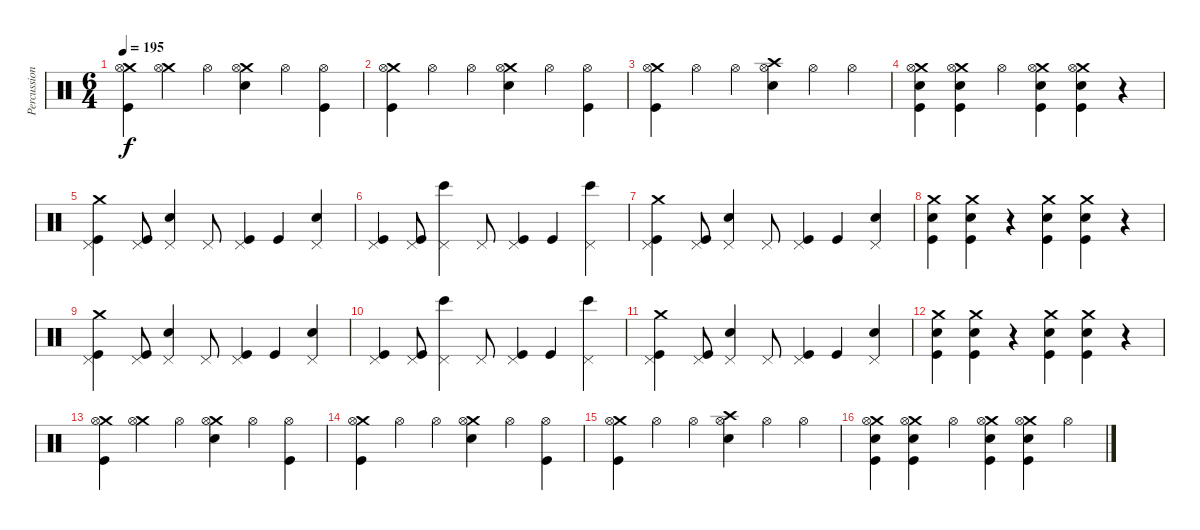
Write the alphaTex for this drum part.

\track ("Percussion" "Percussion") {instrument percussion}
\staff {score}
\articulation defaults
\ts (6 4)
\tempo 195
\clef neutral
\ks c
("Crash medium (hit)" "Hi-Hat (open)" "Kick (hit)").4{dy f} ("Crash medium (hit)" "Hi-Hat (open)").4 "Hi-Hat (open)".4 ("Crash medium (hit)" "Hi-Hat (open)" "Electric Snare (hit)").4 "Hi-Hat (open)".4 ("Hi-Hat (open)" "Kick (hit)").4 |
("Crash medium (hit)" "Hi-Hat (open)" "Kick (hit)").4 "Hi-Hat (open)".4 "Hi-Hat (open)".4 ("Crash medium (hit)" "Hi-Hat (open)" "Electric Snare (hit)").4 "Hi-Hat (open)".4 ("Hi-Hat (open)" "Kick (hit)").4 |
("Crash medium (hit)" "Hi-Hat (open)" "Kick (hit)").4 "Hi-Hat (open)".4 "Hi-Hat (open)".4 ("Crash high (hit)" "Hi-Hat (open)" "Electric Snare (hit)").4 "Hi-Hat (open)".4 "Hi-Hat (open)".4 |
("Crash medium (hit)" "Hi-Hat (open)" "Electric Snare (hit)" "Kick (hit)").4 ("Crash medium (hit)" "Hi-Hat (open)" "Electric Snare (hit)" "Kick (hit)").4 "Hi-Hat (open)".4 ("Crash medium (hit)" "Hi-Hat (open)" "Electric Snare (hit)" "Kick (hit)").4 ("Crash medium (hit)" "Hi-Hat (open)" "Electric Snare (hit)" "Kick (hit)").4 r.4 |
("Pedal Hi-Hat (hit)" "Crash medium (hit)" "Kick (hit)").4 ("Pedal Hi-Hat (hit)" "Kick (hit)").8 ("Pedal Hi-Hat (hit)" "Electric Snare (hit)").4 "Pedal Hi-Hat (hit)".8 ("Pedal Hi-Hat (hit)" "Kick (hit)").4 "Kick (hit)".4 ("Pedal Hi-Hat (hit)" "Electric Snare (hit)").4 |
("Pedal Hi-Hat (hit)" "Kick (hit)").4 ("Pedal Hi-Hat (hit)" "Kick (hit)").8 ("Pedal Hi-Hat (hit)" "Bongo High (hit)").4 "Pedal Hi-Hat (hit)".8 ("Pedal Hi-Hat (hit)" "Kick (hit)").4 "Kick (hit)".4 ("Pedal Hi-Hat (hit)" "Bongo High (hit)").4 |
("Pedal Hi-Hat (hit)" "Crash medium (hit)" "Kick (hit)").4 ("Pedal Hi-Hat (hit)" "Kick (hit)").8 ("Pedal Hi-Hat (hit)" "Electric Snare (hit)").4 "Pedal Hi-Hat (hit)".8 ("Pedal Hi-Hat (hit)" "Kick (hit)").4 "Kick (hit)".4 ("Pedal Hi-Hat (hit)" "Electric Snare (hit)").4 |
("Crash medium (hit)" "Electric Snare (hit)" "Kick (hit)").4 ("Crash medium (hit)" "Electric Snare (hit)" "Kick (hit)").4 r.4 ("Crash medium (hit)" "Electric Snare (hit)" "Kick (hit)").4 ("Crash medium (hit)" "Electric Snare (hit)" "Kick (hit)").4 r.4 |
("Pedal Hi-Hat (hit)" "Crash medium (hit)" "Kick (hit)").4 ("Pedal Hi-Hat (hit)" "Kick (hit)").8 ("Pedal Hi-Hat (hit)" "Electric Snare (hit)").4 "Pedal Hi-Hat (hit)".8 ("Pedal Hi-Hat (hit)" "Kick (hit)").4 "Kick (hit)".4 ("Pedal Hi-Hat (hit)" "Electric Snare (hit)").4 |
("Pedal Hi-Hat (hit)" "Kick (hit)").4 ("Pedal Hi-Hat (hit)" "Kick (hit)").8 ("Pedal Hi-Hat (hit)" "Bongo High (hit)").4 "Pedal Hi-Hat (hit)".8 ("Pedal Hi-Hat (hit)" "Kick (hit)").4 "Kick (hit)".4 ("Pedal Hi-Hat (hit)" "Bongo High (hit)").4 |
("Pedal Hi-Hat (hit)" "Crash medium (hit)" "Kick (hit)").4 ("Pedal Hi-Hat (hit)" "Kick (hit)").8 ("Pedal Hi-Hat (hit)" "Electric Snare (hit)").4 "Pedal Hi-Hat (hit)".8 ("Pedal Hi-Hat (hit)" "Kick (hit)").4 "Kick (hit)".4 ("Pedal Hi-Hat (hit)" "Electric Snare (hit)").4 |
("Crash medium (hit)" "Electric Snare (hit)" "Kick (hit)").4 ("Crash medium (hit)" "Electric Snare (hit)" "Kick (hit)").4 r.4 ("Crash medium (hit)" "Electric Snare (hit)" "Kick (hit)").4 ("Crash medium (hit)" "Electric Snare (hit)" "Kick (hit)").4 r.4 |
("Crash medium (hit)" "Hi-Hat (open)" "Kick (hit)").4 ("Crash medium (hit)" "Hi-Hat (open)").4 "Hi-Hat (open)".4 ("Crash medium (hit)" "Hi-Hat (open)" "Electric Snare (hit)").4 "Hi-Hat (open)".4 ("Hi-Hat (open)" "Kick (hit)").4 |
("Crash medium (hit)" "Hi-Hat (open)" "Kick (hit)").4 "Hi-Hat (open)".4 "Hi-Hat (open)".4 ("Crash medium (hit)" "Hi-Hat (open)" "Electric Snare (hit)").4 "Hi-Hat (open)".4 ("Hi-Hat (open)" "Kick (hit)").4 |
("Crash medium (hit)" "Hi-Hat (open)" "Kick (hit)").4 "Hi-Hat (open)".4 "Hi-Hat (open)".4 ("Crash high (hit)" "Hi-Hat (open)" "Electric Snare (hit)").4 "Hi-Hat (open)".4 "Hi-Hat (open)".4 |
("Crash medium (hit)" "Hi-Hat (open)" "Electric Snare (hit)" "Kick (hit)").4 ("Crash medium (hit)" "Hi-Hat (open)" "Electric Snare (hit)" "Kick (hit)").4 "Hi-Hat (open)".4 ("Crash medium (hit)" "Hi-Hat (open)" "Electric Snare (hit)" "Kick (hit)").4 ("Crash medium (hit)" "Hi-Hat (open)" "Electric Snare (hit)" "Kick (hit)").4 "Hi-Hat (open)".4
